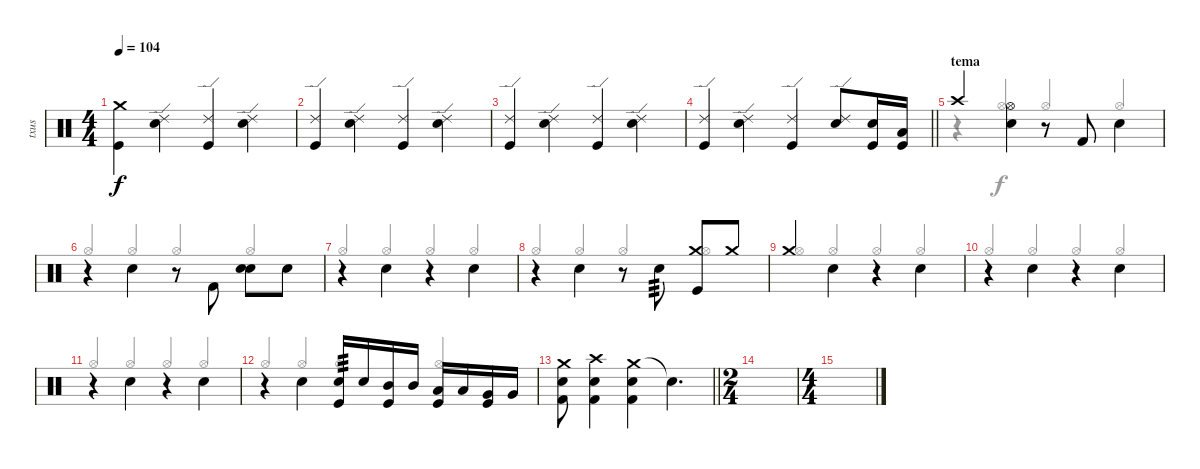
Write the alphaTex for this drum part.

\track ("txus" "txus") {instrument percussion}
\staff {score}
\articulation defaults
\voice
\ts (4 4)
\tempo 104
\clef neutral
\ks c
("Crash medium (hit)" "Kick (hit)").4{dy f} ("Ride (edge) 2" "Electric Snare (hit)").4 ("Ride (edge) 2" "Kick (hit)").4 ("Ride (edge) 2" "Electric Snare (hit)").4 |
("Ride (edge) 2" "Kick (hit)").4 ("Ride (edge) 2" "Electric Snare (hit)").4 ("Ride (edge) 2" "Kick (hit)").4 ("Ride (edge) 2" "Electric Snare (hit)").4 |
("Ride (edge) 2" "Kick (hit)").4 ("Ride (edge) 2" "Electric Snare (hit)").4 ("Ride (edge) 2" "Kick (hit)").4 ("Ride (edge) 2" "Electric Snare (hit)").4 |
\barLineRight lightlight
("Ride (edge) 2" "Kick (hit)").4 ("Ride (edge) 2" "Electric Snare (hit)").4 ("Ride (edge) 2" "Kick (hit)").4 ("Ride (edge) 2" "Electric Snare (hit)").8 ("Electric Snare (hit)" "Kick (hit)").16 ("Low Tom (hit)" "Kick (hit)").16 |
\section ("" "tema")
"Crash high (hit)".4 ("Hi-Hat (open)" "Electric Snare (hit)").4{beam Down} r.8 "Kick (hit) 2".8 "Electric Snare (hit)".4{beam Down} |
r.4 "Electric Snare (hit)".4{beam Down} r.8 "Kick (hit) 2".8{beam Down} ("Electric Snare (hit)" "Electric Snare (hit)").8{beam Down} "Electric Snare (hit)".8 |
r.4 "Electric Snare (hit)".4{beam Down} r.4 "Electric Snare (hit)".4{beam Down} |
r.4 "Electric Snare (hit)".4{beam Down} r.8 "Electric Snare (hit)".8{tp 3 beam Down} ("Crash medium (hit)" "Kick (hit)").8 "Crash medium (hit)".8 |
"Crash medium (hit)".4 "Snare (hit) 2".4{beam Down} r.4 "Snare (hit) 2".4{beam Down} |
r.4 "Snare (hit) 2".4{beam Down} r.4 "Snare (hit) 2".4{beam Down} |
r.4 "Snare (hit) 2".4{beam Down} r.4 "Snare (hit) 2".4{beam Down} |
r.4 "Snare (hit) 2".4{beam Down} ("Electric Snare (hit)" "Kick (hit)").16{tp 3} "Electric Snare (hit)".16 ("Mid Tom (hit)" "Kick (hit)").16 "Mid Tom (hit)".16 ("Low Tom (hit)" "Kick (hit)").16 "Low Tom (hit)".16 ("Very Low Tom (hit)" "Kick (hit)").16 "Very Low Tom (hit)".16 |
\barLineRight lightlight
("Crash medium (hit)" "Kick (hit) 2" "Snare (hit) 2").8 ("Crash high (hit)" "Kick (hit) 2" "Snare (hit) 2").4 ("Crash medium (hit)" "Kick (hit) 2" "Snare (hit) 2").4 "Snare (hit)"{t}.4{d volume 10} |
\ts (2 4)
|
\ts (4 4)
|
\voice
\clef neutral
\ottava regular
\simile none
\ks c
|
|
|
\barLineRight lightlight
|
r.4{beam Up} "Hi-Hat (open)".4{beam Up} "Hi-Hat (open)".4{beam Up} "Hi-Hat (open)".4{beam Up} |
"Hi-Hat (open)".4{beam Up} "Hi-Hat (open)".4{beam Up} "Hi-Hat (open)".4{beam Up} "Hi-Hat (open)".4{beam Up} |
"Hi-Hat (open)".4{beam Up} "Hi-Hat (open)".4{beam Up} "Hi-Hat (open)".4{beam Up} "Hi-Hat (open)".4{beam Up} |
"Hi-Hat (open)".4{beam Up} "Hi-Hat (open)".4{beam Up} "Hi-Hat (open)".4{beam Up} "Hi-Hat (open)".4{beam Up} |
"Hi-Hat (open)".4{beam Up} "Hi-Hat (open)".4{beam Up} "Hi-Hat (open)".4{beam Up} "Hi-Hat (open)".4{beam Up} |
"Hi-Hat (open)".4{beam Up} "Hi-Hat (open)".4{beam Up} "Hi-Hat (open)".4{beam Up} "Hi-Hat (open)".4{beam Up} |
"Hi-Hat (open)".4{beam Up} "Hi-Hat (open)".4{beam Up} "Hi-Hat (open)".4{beam Up} "Hi-Hat (open)".4{beam Up} |
"Hi-Hat (open)".4{beam Up} "Hi-Hat (open)".4{beam Up} "Hi-Hat (open)".4{beam Up} "Hi-Hat (open)".4{beam Up} |
\barLineRight lightlight
|
|
|
